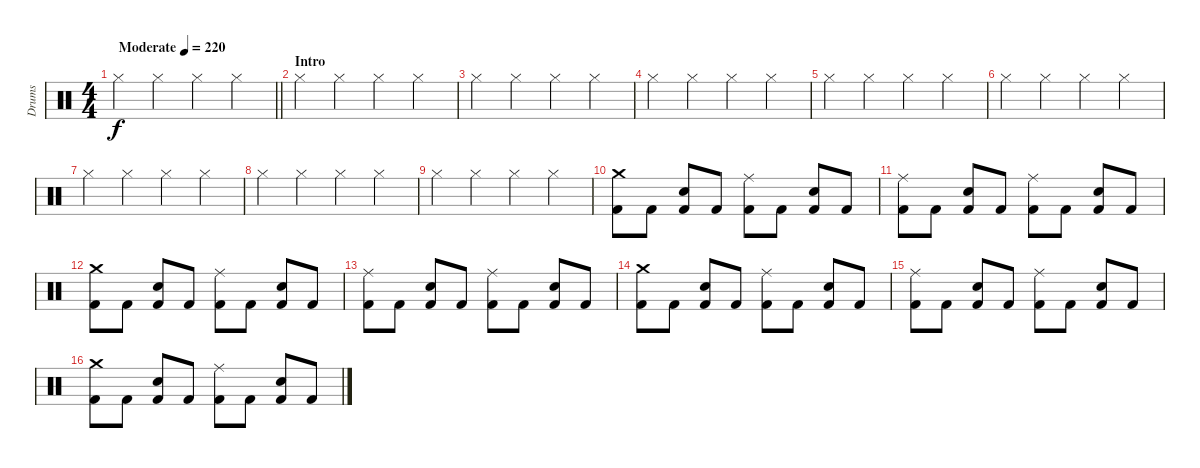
\track ("Drums" "Drums") {instrument percussion}
\staff {score}
\articulation defaults
\ts (4 4)
\tempo (220 "Moderate")
\clef neutral
\barLineRight lightlight
\ks c "Hi-Hat (closed)".4{dy f} "Hi-Hat (closed)".4 "Hi-Hat (closed)".4 "Hi-Hat (closed)".4
|
\section ("" "Intro")
"Hi-Hat (closed)".4 "Hi-Hat (closed)".4 "Hi-Hat (closed)".4 "Hi-Hat (closed)".4 |
"Hi-Hat (closed)".4 "Hi-Hat (closed)".4 "Hi-Hat (closed)".4 "Hi-Hat (closed)".4 |
"Hi-Hat (closed)".4 "Hi-Hat (closed)".4 "Hi-Hat (closed)".4 "Hi-Hat (closed)".4 |
"Hi-Hat (closed)".4 "Hi-Hat (closed)".4 "Hi-Hat (closed)".4 "Hi-Hat (closed)".4 |
"Hi-Hat (closed)".4 "Hi-Hat (closed)".4 "Hi-Hat (closed)".4 "Hi-Hat (closed)".4 |
"Hi-Hat (closed)".4 "Hi-Hat (closed)".4 "Hi-Hat (closed)".4 "Hi-Hat (closed)".4 |
"Hi-Hat (closed)".4 "Hi-Hat (closed)".4 "Hi-Hat (closed)".4 "Hi-Hat (closed)".4 |
"Hi-Hat (closed)".4 "Hi-Hat (closed)".4 "Hi-Hat (closed)".4 "Hi-Hat (closed)".4 |
("Kick (hit) 2" "Crash medium (hit)").8 "Kick (hit) 2".8 ("Kick (hit) 2" "Snare (hit) 2").8 "Kick (hit) 2".8 ("Kick (hit) 2" "Ride (middle)").8 "Kick (hit) 2".8 ("Kick (hit) 2" "Snare (hit) 2").8 "Kick (hit) 2".8 |
("Kick (hit) 2" "Ride (middle)").8 "Kick (hit) 2".8 ("Kick (hit) 2" "Snare (hit) 2").8 "Kick (hit) 2".8 ("Kick (hit) 2" "Ride (middle)").8 "Kick (hit) 2".8 ("Kick (hit) 2" "Snare (hit) 2").8 "Kick (hit) 2".8 |
("Kick (hit) 2" "Crash medium (hit)").8 "Kick (hit) 2".8 ("Kick (hit) 2" "Snare (hit) 2").8 "Kick (hit) 2".8 ("Kick (hit) 2" "Ride (middle)").8 "Kick (hit) 2".8 ("Kick (hit) 2" "Snare (hit) 2").8 "Kick (hit) 2".8 |
("Kick (hit) 2" "Ride (middle)").8 "Kick (hit) 2".8 ("Kick (hit) 2" "Snare (hit) 2").8 "Kick (hit) 2".8 ("Kick (hit) 2" "Ride (middle)").8 "Kick (hit) 2".8 ("Kick (hit) 2" "Snare (hit) 2").8 "Kick (hit) 2".8 |
("Kick (hit) 2" "Crash medium (hit)").8 "Kick (hit) 2".8 ("Kick (hit) 2" "Snare (hit) 2").8 "Kick (hit) 2".8 ("Kick (hit) 2" "Ride (middle)").8 "Kick (hit) 2".8 ("Kick (hit) 2" "Snare (hit) 2").8 "Kick (hit) 2".8 |
("Kick (hit) 2" "Ride (middle)").8 "Kick (hit) 2".8 ("Kick (hit) 2" "Snare (hit) 2").8 "Kick (hit) 2".8 ("Kick (hit) 2" "Ride (middle)").8 "Kick (hit) 2".8 ("Kick (hit) 2" "Snare (hit) 2").8 "Kick (hit) 2".8 |
("Kick (hit) 2" "Crash medium (hit)").8 "Kick (hit) 2".8 ("Kick (hit) 2" "Snare (hit) 2").8 "Kick (hit) 2".8 ("Kick (hit) 2" "Ride (middle)").8 "Kick (hit) 2".8 ("Kick (hit) 2" "Snare (hit) 2").8 "Kick (hit) 2".8
